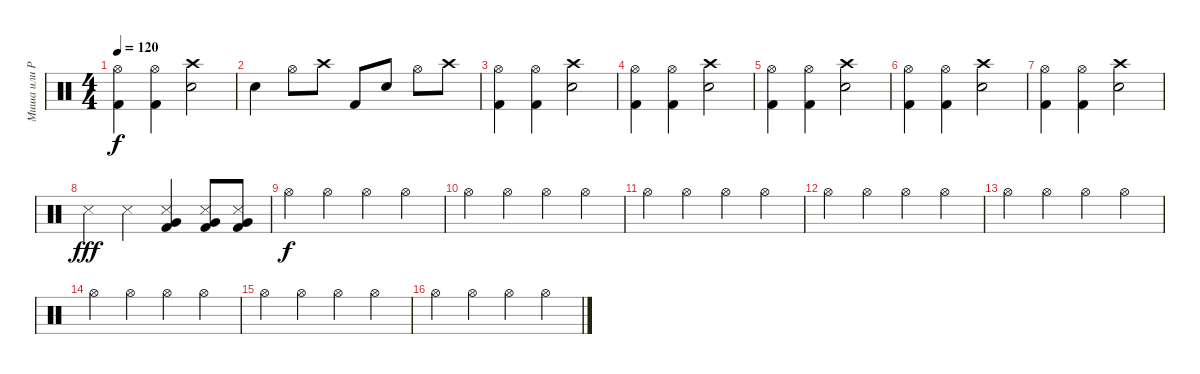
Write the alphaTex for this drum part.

\track ("Миша или Рома" "Миша или Р") {instrument percussion}
\staff {score}
\articulation defaults
\ts (4 4)
\tempo 120
\clef neutral
\ks c
("Hi-Hat (open)" "Kick (hit) 2").4{dy f} ("Hi-Hat (open)" "Kick (hit) 2").4 ("Crash high (hit)" "Snare (hit) 2").2 |
"Snare (hit) 2".4 "Hi-Hat (open)".8 "Crash high (hit)".8 "Kick (hit) 2".8 "Snare (hit) 2".8 "Hi-Hat (open)".8 "Crash high (hit)".8 |
("Hi-Hat (open)" "Kick (hit) 2").4 ("Hi-Hat (open)" "Kick (hit) 2").4 ("Crash high (hit)" "Snare (hit) 2").2 |
("Hi-Hat (open)" "Kick (hit) 2").4 ("Hi-Hat (open)" "Kick (hit) 2").4 ("Crash high (hit)" "Snare (hit) 2").2 |
("Hi-Hat (open)" "Kick (hit) 2").4 ("Hi-Hat (open)" "Kick (hit) 2").4 ("Crash high (hit)" "Snare (hit) 2").2 |
("Hi-Hat (open)" "Kick (hit) 2").4 ("Hi-Hat (open)" "Kick (hit) 2").4 ("Crash high (hit)" "Snare (hit) 2").2 |
("Hi-Hat (open)" "Kick (hit) 2").4 ("Hi-Hat (open)" "Kick (hit) 2").4 ("Crash high (hit)" "Snare (hit) 2").2 |
"Metronome (hit)".4{dy fff} "Metronome (hit)".4 ("Metronome (hit)" "Very Low Tom (hit)" "Kick (hit) 2").4 ("Metronome (hit)" "Very Low Tom (hit)" "Kick (hit) 2").8 ("Metronome (hit)" "Very Low Tom (hit)" "Kick (hit) 2").8 |
"Hi-Hat (open)".4{dy f} "Hi-Hat (open)".4 "Hi-Hat (open)".4 "Hi-Hat (open)".4 |
"Hi-Hat (open)".4 "Hi-Hat (open)".4 "Hi-Hat (open)".4 "Hi-Hat (open)".4 |
"Hi-Hat (open)".4 "Hi-Hat (open)".4 "Hi-Hat (open)".4 "Hi-Hat (open)".4 |
"Hi-Hat (open)".4 "Hi-Hat (open)".4 "Hi-Hat (open)".4 "Hi-Hat (open)".4 |
"Hi-Hat (open)".4 "Hi-Hat (open)".4 "Hi-Hat (open)".4 "Hi-Hat (open)".4 |
"Hi-Hat (open)".4 "Hi-Hat (open)".4 "Hi-Hat (open)".4 "Hi-Hat (open)".4 |
"Hi-Hat (open)".4 "Hi-Hat (open)".4 "Hi-Hat (open)".4 "Hi-Hat (open)".4 |
"Hi-Hat (open)".4 "Hi-Hat (open)".4 "Hi-Hat (open)".4 "Hi-Hat (open)".4
